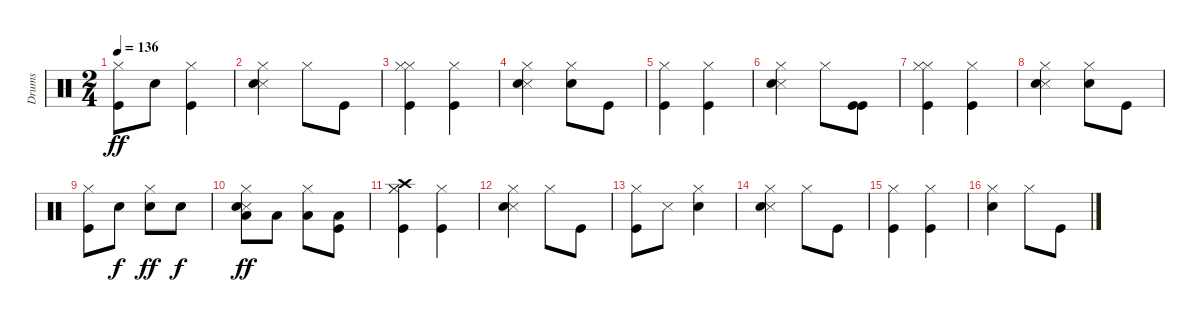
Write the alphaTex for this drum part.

\track ("Drums" "Drums") {instrument percussion}
\staff {score}
\articulation defaults
\ts (2 4)
\tempo 136
\clef neutral
\ks c
("Kick (hit)" "Hi-Hat (closed)").8{dy ff} "Snare (hit) 2".8 ("Kick (hit)" "Hi-Hat (closed)").4 |
("Snare (side stick) 3" "Hi-Hat (closed)" "Snare (hit) 2").4 "Hi-Hat (closed)".8 "Kick (hit)".8 |
("Kick (hit)" "Hi-Hat (closed)" "Hi-Hat (closed)").4 ("Kick (hit)" "Hi-Hat (closed)").4 |
("Snare (side stick) 3" "Hi-Hat (closed)" "Snare (hit) 2").4 ("Hi-Hat (closed)" "Snare (hit) 2").8 "Kick (hit)".8 |
("Kick (hit)" "Hi-Hat (closed)").4 ("Kick (hit)" "Hi-Hat (closed)").4 |
("Snare (side stick) 3" "Hi-Hat (closed)" "Snare (hit) 2").4 "Hi-Hat (closed)".8 ("Kick (hit)" "Kick (hit)").8 |
("Kick (hit)" "Hi-Hat (closed)" "Hi-Hat (closed)").4 ("Kick (hit)" "Hi-Hat (closed)").4 |
("Snare (side stick) 3" "Hi-Hat (closed)" "Snare (hit) 2").4 ("Hi-Hat (closed)" "Snare (hit) 2").8 "Kick (hit)".8 |
("Kick (hit)" "Hi-Hat (closed)").8 "Snare (hit) 2".8{dy f} ("Snare (hit) 2" "Hi-Hat (closed)").8{dy ff} "Snare (hit) 2".8{dy f} |
("Low Tom (hit)" "Snare (side stick) 3" "Hi-Hat (closed)" "Snare (hit) 2").8{dy ff} "Low Tom (hit)".8 ("Low Tom (hit)" "Hi-Hat (closed)").8 ("Low Tom (hit)" "Kick (hit)").8 |
("Crash high (hit)" "Kick (hit)" "Hi-Hat (closed)" "Hi-Hat (closed)").4 ("Kick (hit)" "Hi-Hat (closed)").4 |
("Snare (side stick) 3" "Hi-Hat (closed)" "Snare (hit) 2").4 "Hi-Hat (closed)".8 "Kick (hit)".8 |
("Kick (hit)" "Hi-Hat (closed)").8 "Snare (side stick) 3".8 ("Snare (hit) 2" "Hi-Hat (closed)").4 |
("Snare (side stick) 3" "Hi-Hat (closed)" "Snare (hit) 2").4 "Hi-Hat (closed)".8 "Kick (hit)".8 |
("Kick (hit)" "Hi-Hat (closed)").4 ("Kick (hit)" "Hi-Hat (closed)").4 |
("Hi-Hat (closed)" "Snare (hit) 2").4 "Hi-Hat (closed)".8 "Kick (hit)".8
